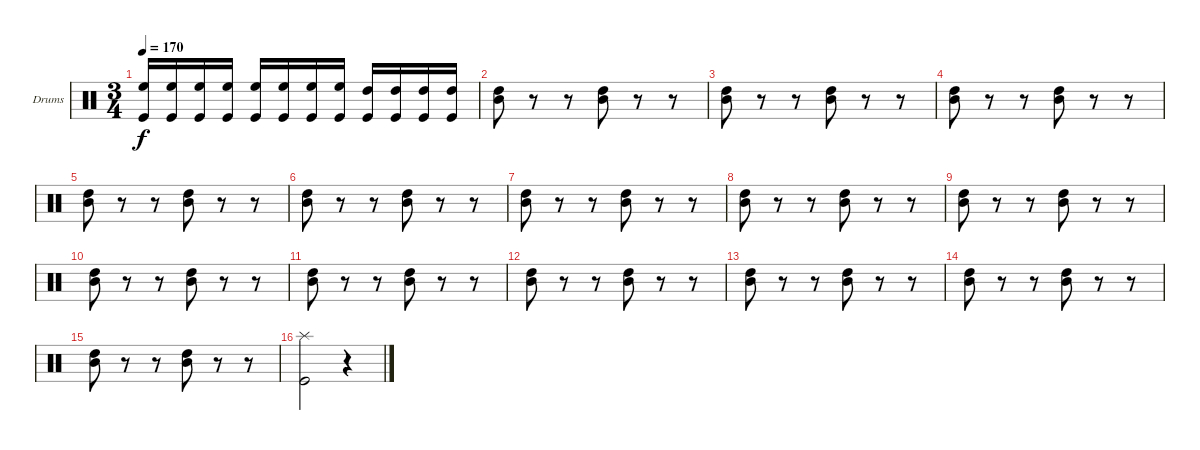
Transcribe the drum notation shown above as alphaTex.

\bracketExtendMode groupsimilarinstruments
\firstSystemTrackNameOrientation horizontal
\otherSystemsTrackNameOrientation horizontal
\track ("Drumkit" "Drums") {instrument percussion}
\staff {score}
\articulation defaults
\ts (3 4)
\tempo 170
\clef neutral
\ks c
("High Floor Tom (hit)" "Kick (hit)").16{dy f} ("High Floor Tom (hit)" "Kick (hit)").16 ("High Floor Tom (hit)" "Kick (hit)").16 ("High Floor Tom (hit)" "Kick (hit)").16 ("High Floor Tom (hit)" "Kick (hit)").16 ("High Floor Tom (hit)" "Kick (hit)").16 ("High Floor Tom (hit)" "Kick (hit)").16 ("High Floor Tom (hit)" "Kick (hit)").16 ("High Tom (hit)" "Kick (hit)").16 ("High Tom (hit)" "Kick (hit)").16 ("High Tom (hit)" "Kick (hit)").16 ("High Tom (hit)" "Kick (hit)").16 |
("Mid Tom (hit)" "High Tom (hit)").8 r.8 r.8 ("Mid Tom (hit)" "High Tom (hit)").8 r.8 r.8 |
("Mid Tom (hit)" "High Tom (hit)").8 r.8 r.8 ("Mid Tom (hit)" "High Tom (hit)").8 r.8 r.8 |
("Mid Tom (hit)" "High Tom (hit)").8 r.8 r.8 ("Mid Tom (hit)" "High Tom (hit)").8 r.8 r.8 |
("Mid Tom (hit)" "High Tom (hit)").8 r.8 r.8 ("Mid Tom (hit)" "High Tom (hit)").8 r.8 r.8 |
("Mid Tom (hit)" "High Tom (hit)").8 r.8 r.8 ("Mid Tom (hit)" "High Tom (hit)").8 r.8 r.8 |
("Mid Tom (hit)" "High Tom (hit)").8 r.8 r.8 ("Mid Tom (hit)" "High Tom (hit)").8 r.8 r.8 |
("Mid Tom (hit)" "High Tom (hit)").8 r.8 r.8 ("Mid Tom (hit)" "High Tom (hit)").8 r.8 r.8 |
("Mid Tom (hit)" "High Tom (hit)").8 r.8 r.8 ("Mid Tom (hit)" "High Tom (hit)").8 r.8 r.8 |
("Mid Tom (hit)" "High Tom (hit)").8 r.8 r.8 ("Mid Tom (hit)" "High Tom (hit)").8 r.8 r.8 |
("Mid Tom (hit)" "High Tom (hit)").8 r.8 r.8 ("Mid Tom (hit)" "High Tom (hit)").8 r.8 r.8 |
("Mid Tom (hit)" "High Tom (hit)").8 r.8 r.8 ("Mid Tom (hit)" "High Tom (hit)").8 r.8 r.8 |
("Mid Tom (hit)" "High Tom (hit)").8 r.8 r.8 ("Mid Tom (hit)" "High Tom (hit)").8 r.8 r.8 |
("Mid Tom (hit)" "High Tom (hit)").8 r.8 r.8 ("Mid Tom (hit)" "High Tom (hit)").8 r.8 r.8 |
("Mid Tom (hit)" "High Tom (hit)").8 r.8 r.8 ("Mid Tom (hit)" "High Tom (hit)").8 r.8 r.8 |
("Splash (hit)" "Kick (hit)").2 r.4
